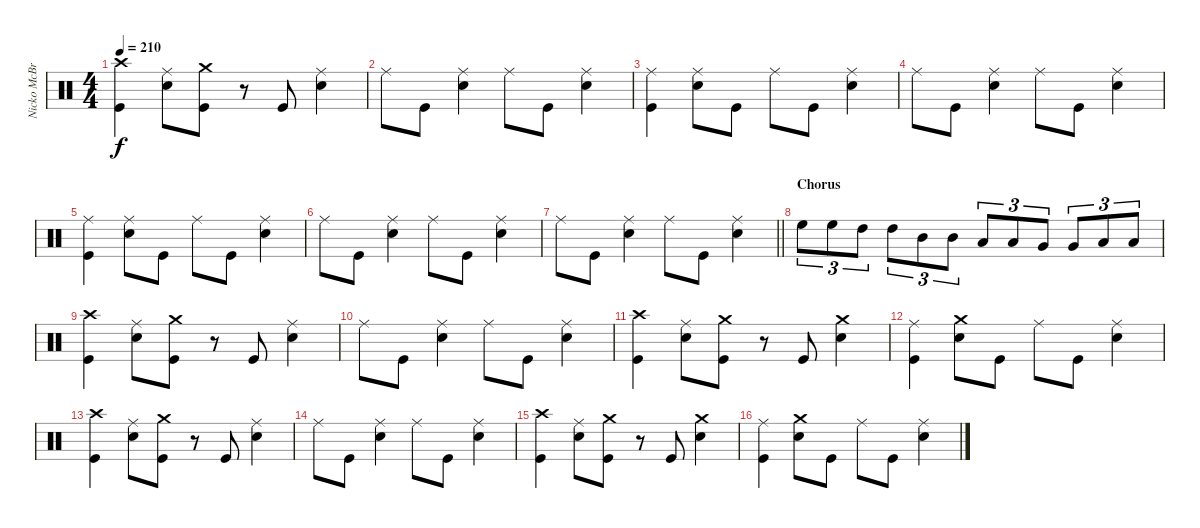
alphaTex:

\track ("Nicko McBrain" "Nicko McBr") {instrument percussion}
\staff {score}
\articulation defaults
\ts (4 4)
\tempo 210
\clef neutral
\ks c
("Crash high (hit)" "Kick (hit)").4{dy f} ("Ride (middle)" "Snare (hit) 2").8 ("Crash medium (hit)" "Kick (hit)").8 r.8 "Kick (hit)".8 ("Ride (middle)" "Snare (hit) 2").4 |
"Ride (middle)".8 "Kick (hit)".8 ("Ride (middle)" "Snare (hit) 2").4 "Ride (middle)".8 "Kick (hit)".8 ("Ride (middle)" "Snare (hit) 2").4 |
("Ride (middle)" "Kick (hit)").4 ("Ride (middle)" "Snare (hit) 2").8 "Kick (hit)".8 "Ride (middle)".8 "Kick (hit)".8 ("Ride (middle)" "Snare (hit) 2").4 |
"Ride (middle)".8 "Kick (hit)".8 ("Ride (middle)" "Snare (hit) 2").4 "Ride (middle)".8 "Kick (hit)".8 ("Ride (middle)" "Snare (hit) 2").4 |
("Ride (middle)" "Kick (hit)").4 ("Ride (middle)" "Snare (hit) 2").8 "Kick (hit)".8 "Ride (middle)".8 "Kick (hit)".8 ("Ride (middle)" "Snare (hit) 2").4 |
"Ride (middle)".8 "Kick (hit)".8 ("Ride (middle)" "Snare (hit) 2").4 "Ride (middle)".8 "Kick (hit)".8 ("Ride (middle)" "Snare (hit) 2").4 |
\barLineRight lightlight "Ride (middle)".8 "Kick (hit)".8
("Ride (middle)" "Snare (hit) 2").4 "Ride (middle)".8 "Kick (hit)".8 ("Ride (middle)" "Snare (hit) 2").4 |
\section ("" "Chorus")
"High Floor Tom (hit)".8{tu (3 2)} "High Floor Tom (hit)".8{tu (3 2)} "High Tom (hit)".8{tu (3 2)} "High Tom (hit)".8{tu (3 2)} "Mid Tom (hit)".8{tu (3 2)} "Mid Tom (hit)".8{tu (3 2)} "Low Tom (hit)".8{tu (3 2)} "Low Tom (hit)".8{tu (3 2)} "Very Low Tom (hit)".8{tu (3 2)} "Very Low Tom (hit)".8{tu (3 2)} "Low Floor Tom (hit)".8{tu (3 2)} "Low Floor Tom (hit)".8{tu (3 2)} |
("Crash high (hit)" "Kick (hit)").4 ("Ride (middle)" "Snare (hit) 2").8 ("Crash medium (hit)" "Kick (hit)").8 r.8 "Kick (hit)".8 ("Ride (middle)" "Snare (hit) 2").4 |
"Ride (middle)".8 "Kick (hit)".8 ("Ride (middle)" "Snare (hit) 2").4 "Ride (middle)".8 "Kick (hit)".8 ("Ride (middle)" "Snare (hit) 2").4 |
("Crash high (hit)" "Kick (hit)").4 ("Ride (middle)" "Snare (hit) 2").8 ("Crash medium (hit)" "Kick (hit)").8 r.8 "Kick (hit)".8 ("Crash medium (hit)" "Snare (hit) 2").4 |
("Ride (middle)" "Kick (hit)").4 ("Crash medium (hit)" "Snare (hit) 2").8 "Kick (hit)".8 "Ride (middle)".8 "Kick (hit)".8 ("Ride (middle)" "Snare (hit) 2").4 |
("Crash high (hit)" "Kick (hit)").4 ("Ride (middle)" "Snare (hit) 2").8 ("Crash medium (hit)" "Kick (hit)").8 r.8 "Kick (hit)".8 ("Ride (middle)" "Snare (hit) 2").4 |
"Ride (middle)".8 "Kick (hit)".8 ("Ride (middle)" "Snare (hit) 2").4 "Ride (middle)".8 "Kick (hit)".8 ("Ride (middle)" "Snare (hit) 2").4 |
("Crash high (hit)" "Kick (hit)").4 ("Ride (middle)" "Snare (hit) 2").8 ("Crash medium (hit)" "Kick (hit)").8 r.8 "Kick (hit)".8 ("Crash medium (hit)" "Snare (hit) 2").4 |
("Ride (middle)" "Kick (hit)").4 ("Crash medium (hit)" "Snare (hit) 2").8 "Kick (hit)".8 "Ride (middle)".8 "Kick (hit)".8 ("Ride (middle)" "Snare (hit) 2").4
